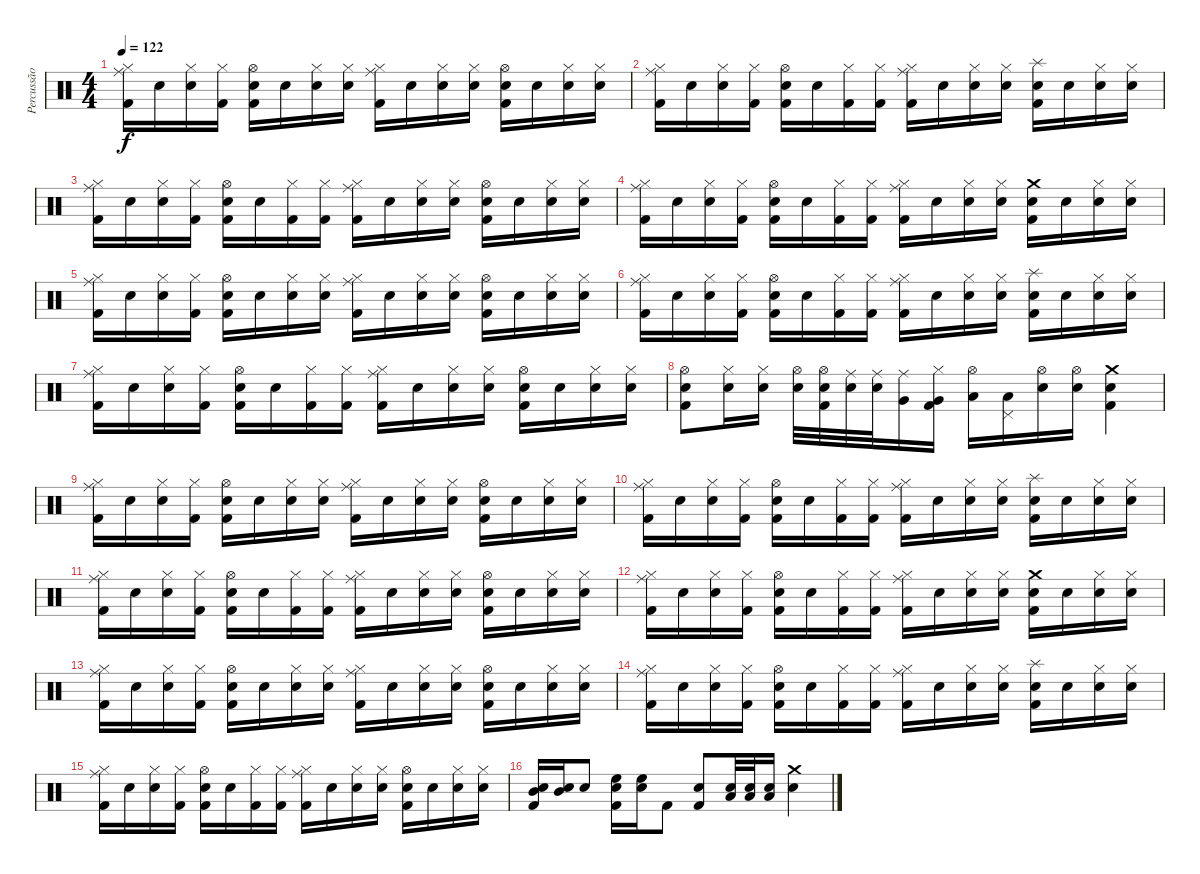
\track ("Percussão" "Percussão") {instrument percussion}
\staff {score}
\articulation defaults
\ts (4 4)
\tempo 122
\clef neutral
\ks c
("Kick (hit) 2" "Hi-Hat (closed)" "Ride (middle)").16{dy f} "Snare (hit)".16 ("Snare (hit)" "Hi-Hat (closed)").16 ("Kick (hit) 2" "Hi-Hat (closed)").16 ("Kick (hit) 2" "Electric Snare (hit)" "Hi-Hat (open)").16 "Snare (hit)".16 ("Snare (hit)" "Hi-Hat (closed)").16 ("Snare (hit)" "Hi-Hat (closed)").16 ("Kick (hit) 2" "Hi-Hat (closed)" "Ride (middle)").16 "Snare (hit)".16 ("Snare (hit)" "Hi-Hat (closed)").16 ("Snare (hit)" "Hi-Hat (closed)").16 ("Kick (hit) 2" "Electric Snare (hit)" "Hi-Hat (open)").16 "Snare (hit)".16 ("Snare (hit)" "Hi-Hat (closed)").16 ("Snare (hit)" "Hi-Hat (closed)").16 |
("Kick (hit) 2" "Hi-Hat (closed)" "Ride (middle)").16 "Snare (hit)".16 ("Snare (hit)" "Hi-Hat (closed)").16 ("Kick (hit) 2" "Hi-Hat (closed)").16 ("Kick (hit) 2" "Electric Snare (hit)" "Hi-Hat (open)").16 "Snare (hit)".16 ("Kick (hit) 2" "Hi-Hat (closed)").16 ("Kick (hit) 2" "Hi-Hat (closed)").16 ("Kick (hit) 2" "Hi-Hat (closed)" "Ride (middle)").16 "Snare (hit)".16 ("Snare (hit)" "Hi-Hat (closed)").16 ("Snare (hit)" "Hi-Hat (closed)").16 ("Kick (hit) 2" "Electric Snare (hit)" "Splash (hit)").16 "Snare (hit)".16 ("Snare (hit)" "Hi-Hat (closed)").16 ("Snare (hit)" "Hi-Hat (closed)").16 |
("Kick (hit) 2" "Hi-Hat (closed)" "Ride (middle)").16 "Snare (hit)".16 ("Snare (hit)" "Hi-Hat (closed)").16 ("Kick (hit) 2" "Hi-Hat (closed)").16 ("Kick (hit) 2" "Electric Snare (hit)" "Hi-Hat (open)").16 "Snare (hit)".16 ("Kick (hit) 2" "Hi-Hat (closed)").16 ("Kick (hit) 2" "Hi-Hat (closed)").16 ("Kick (hit) 2" "Hi-Hat (closed)" "Ride (middle)").16 "Snare (hit)".16 ("Snare (hit)" "Hi-Hat (closed)").16 ("Snare (hit)" "Hi-Hat (closed)").16 ("Kick (hit) 2" "Electric Snare (hit)" "Hi-Hat (open)").16 "Snare (hit)".16 ("Snare (hit)" "Hi-Hat (closed)").16 ("Snare (hit)" "Hi-Hat (closed)").16 |
("Kick (hit) 2" "Hi-Hat (closed)" "Ride (middle)").16 "Snare (hit)".16 ("Snare (hit)" "Hi-Hat (closed)").16 ("Kick (hit) 2" "Hi-Hat (closed)").16 ("Kick (hit) 2" "Electric Snare (hit)" "Hi-Hat (open)").16 "Snare (hit)".16 ("Kick (hit) 2" "Hi-Hat (closed)").16 ("Kick (hit) 2" "Hi-Hat (closed)").16 ("Kick (hit) 2" "Hi-Hat (closed)" "Ride (middle)").16 "Snare (hit)".16 ("Snare (hit)" "Hi-Hat (closed)").16 ("Snare (hit)" "Hi-Hat (closed)").16 ("Kick (hit) 2" "Electric Snare (hit)" "Crash medium (hit)").16 "Snare (hit)".16 ("Snare (hit)" "Hi-Hat (closed)").16 ("Snare (hit)" "Hi-Hat (closed)").16 |
("Kick (hit) 2" "Hi-Hat (closed)" "Ride (middle)").16 "Snare (hit)".16 ("Snare (hit)" "Hi-Hat (closed)").16 ("Kick (hit) 2" "Hi-Hat (closed)").16 ("Kick (hit) 2" "Electric Snare (hit)" "Hi-Hat (open)").16 "Snare (hit)".16 ("Snare (hit)" "Hi-Hat (closed)").16 ("Snare (hit)" "Hi-Hat (closed)").16 ("Kick (hit) 2" "Hi-Hat (closed)" "Ride (middle)").16 "Snare (hit)".16 ("Snare (hit)" "Hi-Hat (closed)").16 ("Snare (hit)" "Hi-Hat (closed)").16 ("Kick (hit) 2" "Electric Snare (hit)" "Hi-Hat (open)").16 "Snare (hit)".16 ("Snare (hit)" "Hi-Hat (closed)").16 ("Snare (hit)" "Hi-Hat (closed)").16 |
("Kick (hit) 2" "Hi-Hat (closed)" "Ride (middle)").16 "Snare (hit)".16 ("Snare (hit)" "Hi-Hat (closed)").16 ("Kick (hit) 2" "Hi-Hat (closed)").16 ("Kick (hit) 2" "Electric Snare (hit)" "Hi-Hat (open)").16 "Snare (hit)".16 ("Kick (hit) 2" "Hi-Hat (closed)").16 ("Kick (hit) 2" "Hi-Hat (closed)").16 ("Kick (hit) 2" "Hi-Hat (closed)" "Ride (middle)").16 "Snare (hit)".16 ("Snare (hit)" "Hi-Hat (closed)").16 ("Snare (hit)" "Hi-Hat (closed)").16 ("Kick (hit) 2" "Electric Snare (hit)" "Splash (hit)").16 "Snare (hit)".16 ("Snare (hit)" "Hi-Hat (closed)").16 ("Snare (hit)" "Hi-Hat (closed)").16 |
("Kick (hit) 2" "Hi-Hat (closed)" "Ride (middle)").16 "Snare (hit)".16 ("Snare (hit)" "Hi-Hat (closed)").16 ("Kick (hit) 2" "Hi-Hat (closed)").16 ("Kick (hit) 2" "Electric Snare (hit)" "Hi-Hat (open)").16 "Snare (hit)".16 ("Kick (hit) 2" "Hi-Hat (closed)").16 ("Kick (hit) 2" "Hi-Hat (closed)").16 ("Kick (hit) 2" "Hi-Hat (closed)" "Ride (middle)").16 "Snare (hit)".16 ("Snare (hit)" "Hi-Hat (closed)").16 ("Snare (hit)" "Hi-Hat (closed)").16 ("Kick (hit) 2" "Electric Snare (hit)" "Hi-Hat (open)").16 "Snare (hit)".16 ("Snare (hit)" "Hi-Hat (closed)").16 ("Snare (hit)" "Hi-Hat (closed)").16 |
("Kick (hit) 2" "Electric Snare (hit)" "Hi-Hat (open)").8 ("Electric Snare (hit)" "Hi-Hat (closed)").16 ("Electric Snare (hit)" "Hi-Hat (closed)").16 ("Electric Snare (hit)" "Hi-Hat (open)").32 ("Kick (hit) 2" "Electric Snare (hit)" "Hi-Hat (open)").32 ("Electric Snare (hit)" "Ride (middle)").32 ("Electric Snare (hit)" "Ride (middle)").32 ("Very Low Tom (hit)" "Ride (middle)").16 ("Kick (hit) 2" "Very Low Tom (hit)" "Hi-Hat (closed)").16 ("Low Tom (hit)" "Hi-Hat (open)").16 ("Low Tom (hit)" "Pedal Hi-Hat (hit)").16 ("Snare (hit) 2" "Hi-Hat (open)").16 ("Snare (hit) 2" "Hi-Hat (open)").16 ("Kick (hit) 2" "Electric Snare (hit)" "Crash medium (hit)").4 |
("Kick (hit) 2" "Hi-Hat (closed)" "Ride (middle)").16 "Snare (hit)".16 ("Snare (hit)" "Hi-Hat (closed)").16 ("Kick (hit) 2" "Hi-Hat (closed)").16 ("Kick (hit) 2" "Electric Snare (hit)" "Hi-Hat (open)").16 "Snare (hit)".16 ("Snare (hit)" "Hi-Hat (closed)").16 ("Snare (hit)" "Hi-Hat (closed)").16 ("Kick (hit) 2" "Hi-Hat (closed)" "Ride (middle)").16 "Snare (hit)".16 ("Snare (hit)" "Hi-Hat (closed)").16 ("Snare (hit)" "Hi-Hat (closed)").16 ("Kick (hit) 2" "Electric Snare (hit)" "Hi-Hat (open)").16 "Snare (hit)".16 ("Snare (hit)" "Hi-Hat (closed)").16 ("Snare (hit)" "Hi-Hat (closed)").16 |
("Kick (hit) 2" "Hi-Hat (closed)" "Ride (middle)").16 "Snare (hit)".16 ("Snare (hit)" "Hi-Hat (closed)").16 ("Kick (hit) 2" "Hi-Hat (closed)").16 ("Kick (hit) 2" "Electric Snare (hit)" "Hi-Hat (open)").16 "Snare (hit)".16 ("Kick (hit) 2" "Hi-Hat (closed)").16 ("Kick (hit) 2" "Hi-Hat (closed)").16 ("Kick (hit) 2" "Hi-Hat (closed)" "Ride (middle)").16 "Snare (hit)".16 ("Snare (hit)" "Hi-Hat (closed)").16 ("Snare (hit)" "Hi-Hat (closed)").16 ("Kick (hit) 2" "Electric Snare (hit)" "Splash (hit)").16 "Snare (hit)".16 ("Snare (hit)" "Hi-Hat (closed)").16 ("Snare (hit)" "Hi-Hat (closed)").16 |
("Kick (hit) 2" "Hi-Hat (closed)" "Ride (middle)").16 "Snare (hit)".16 ("Snare (hit)" "Hi-Hat (closed)").16 ("Kick (hit) 2" "Hi-Hat (closed)").16 ("Kick (hit) 2" "Electric Snare (hit)" "Hi-Hat (open)").16 "Snare (hit)".16 ("Kick (hit) 2" "Hi-Hat (closed)").16 ("Kick (hit) 2" "Hi-Hat (closed)").16 ("Kick (hit) 2" "Hi-Hat (closed)" "Ride (middle)").16 "Snare (hit)".16 ("Snare (hit)" "Hi-Hat (closed)").16 ("Snare (hit)" "Hi-Hat (closed)").16 ("Kick (hit) 2" "Electric Snare (hit)" "Hi-Hat (open)").16 "Snare (hit)".16 ("Snare (hit)" "Hi-Hat (closed)").16 ("Snare (hit)" "Hi-Hat (closed)").16 |
("Kick (hit) 2" "Hi-Hat (closed)" "Ride (middle)").16 "Snare (hit)".16 ("Snare (hit)" "Hi-Hat (closed)").16 ("Kick (hit) 2" "Hi-Hat (closed)").16 ("Kick (hit) 2" "Electric Snare (hit)" "Hi-Hat (open)").16 "Snare (hit)".16 ("Kick (hit) 2" "Hi-Hat (closed)").16 ("Kick (hit) 2" "Hi-Hat (closed)").16 ("Kick (hit) 2" "Hi-Hat (closed)" "Ride (middle)").16 "Snare (hit)".16 ("Snare (hit)" "Hi-Hat (closed)").16 ("Snare (hit)" "Hi-Hat (closed)").16 ("Kick (hit) 2" "Electric Snare (hit)" "Crash medium (hit)").16 "Snare (hit)".16 ("Snare (hit)" "Hi-Hat (closed)").16 ("Snare (hit)" "Hi-Hat (closed)").16 |
("Kick (hit) 2" "Hi-Hat (closed)" "Ride (middle)").16 "Snare (hit)".16 ("Snare (hit)" "Hi-Hat (closed)").16 ("Kick (hit) 2" "Hi-Hat (closed)").16 ("Kick (hit) 2" "Electric Snare (hit)" "Hi-Hat (open)").16 "Snare (hit)".16 ("Snare (hit)" "Hi-Hat (closed)").16 ("Snare (hit)" "Hi-Hat (closed)").16 ("Kick (hit) 2" "Hi-Hat (closed)" "Ride (middle)").16 "Snare (hit)".16 ("Snare (hit)" "Hi-Hat (closed)").16 ("Snare (hit)" "Hi-Hat (closed)").16 ("Kick (hit) 2" "Electric Snare (hit)" "Hi-Hat (open)").16 "Snare (hit)".16 ("Snare (hit)" "Hi-Hat (closed)").16 ("Snare (hit)" "Hi-Hat (closed)").16 |
("Kick (hit) 2" "Hi-Hat (closed)" "Ride (middle)").16 "Snare (hit)".16 ("Snare (hit)" "Hi-Hat (closed)").16 ("Kick (hit) 2" "Hi-Hat (closed)").16 ("Kick (hit) 2" "Electric Snare (hit)" "Hi-Hat (open)").16 "Snare (hit)".16 ("Kick (hit) 2" "Hi-Hat (closed)").16 ("Kick (hit) 2" "Hi-Hat (closed)").16 ("Kick (hit) 2" "Hi-Hat (closed)" "Ride (middle)").16 "Snare (hit)".16 ("Snare (hit)" "Hi-Hat (closed)").16 ("Snare (hit)" "Hi-Hat (closed)").16 ("Kick (hit) 2" "Electric Snare (hit)" "Splash (hit)").16 "Snare (hit)".16 ("Snare (hit)" "Hi-Hat (closed)").16 ("Snare (hit)" "Hi-Hat (closed)").16 |
("Kick (hit) 2" "Hi-Hat (closed)" "Ride (middle)").16 "Snare (hit)".16 ("Snare (hit)" "Hi-Hat (closed)").16 ("Kick (hit) 2" "Hi-Hat (closed)").16 ("Kick (hit) 2" "Electric Snare (hit)" "Hi-Hat (open)").16 "Snare (hit)".16 ("Kick (hit) 2" "Hi-Hat (closed)").16 ("Kick (hit) 2" "Hi-Hat (closed)").16 ("Kick (hit) 2" "Hi-Hat (closed)" "Ride (middle)").16 "Snare (hit)".16 ("Snare (hit)" "Hi-Hat (closed)").16 ("Snare (hit)" "Hi-Hat (closed)").16 ("Kick (hit) 2" "Electric Snare (hit)" "Hi-Hat (open)").16 "Snare (hit)".16 ("Snare (hit)" "Hi-Hat (closed)").16 ("Snare (hit)" "Hi-Hat (closed)").16 |
("Electric Snare (hit)" "Kick (hit) 2" "Mid Tom (hit)").16 ("Electric Snare (hit)" "Mid Tom (hit)").16 "Electric Snare (hit)".8 ("Electric Snare (hit)" "Kick (hit) 2" "High Floor Tom (hit)").16 ("Electric Snare (hit)" "High Floor Tom (hit)").16 "Kick (hit) 2".8 ("Electric Snare (hit)" "Kick (hit) 2").8 ("Electric Snare (hit)" "Low Floor Tom (hit)").32 ("Electric Snare (hit)" "Low Floor Tom (hit)").32 ("Electric Snare (hit)" "Low Floor Tom (hit)").16 ("Electric Snare (hit)" "Crash medium (hit)").4
